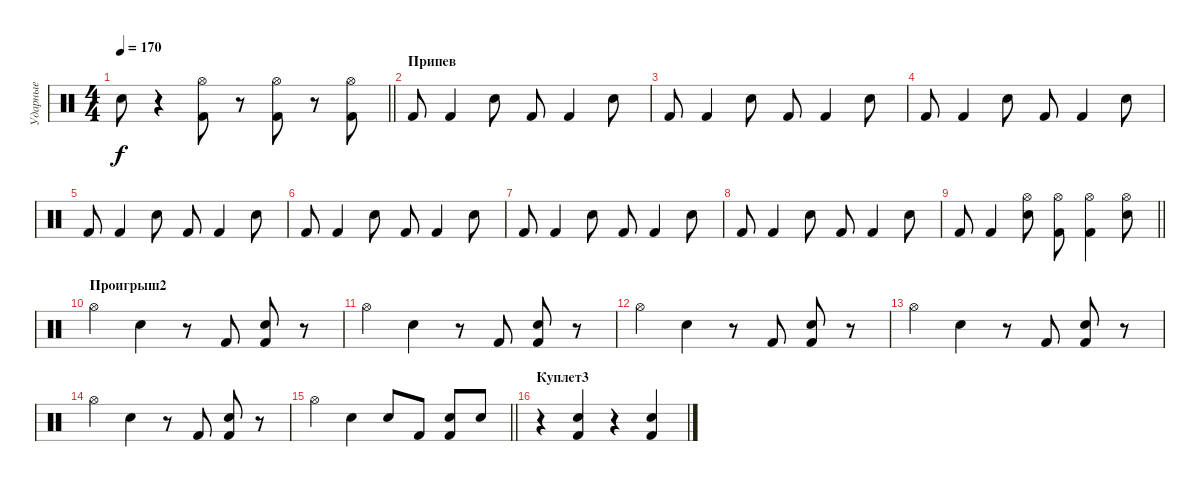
\track ("Ударные" "Ударные") {instrument percussion}
\staff {score}
\articulation defaults
\ts (4 4)
\tempo 170
\clef neutral
\barLineRight lightlight
\ks c "Electric Snare (hit)".8{dy f}
r.4 ("Hi-Hat (open)" "Kick (hit) 2").8 r.8 ("Hi-Hat (open)" "Kick (hit) 2").8 r.8 ("Hi-Hat (open)" "Kick (hit) 2").8 |
\section ("" "Припев")
"Kick (hit) 2".8 "Kick (hit) 2".4 "Electric Snare (hit)".8 "Kick (hit) 2".8 "Kick (hit) 2".4 "Electric Snare (hit)".8 |
"Kick (hit) 2".8 "Kick (hit) 2".4 "Electric Snare (hit)".8 "Kick (hit) 2".8 "Kick (hit) 2".4 "Electric Snare (hit)".8 |
"Kick (hit) 2".8 "Kick (hit) 2".4 "Electric Snare (hit)".8 "Kick (hit) 2".8 "Kick (hit) 2".4 "Electric Snare (hit)".8 |
"Kick (hit) 2".8 "Kick (hit) 2".4 "Electric Snare (hit)".8 "Kick (hit) 2".8 "Kick (hit) 2".4 "Electric Snare (hit)".8 |
"Kick (hit) 2".8 "Kick (hit) 2".4 "Electric Snare (hit)".8 "Kick (hit) 2".8 "Kick (hit) 2".4 "Electric Snare (hit)".8 |
"Kick (hit) 2".8 "Kick (hit) 2".4 "Electric Snare (hit)".8 "Kick (hit) 2".8 "Kick (hit) 2".4 "Electric Snare (hit)".8 |
"Kick (hit) 2".8 "Kick (hit) 2".4 "Electric Snare (hit)".8 "Kick (hit) 2".8 "Kick (hit) 2".4 "Electric Snare (hit)".8 |
\barLineRight lightlight "Kick (hit) 2".8 "Kick (hit) 2".4
("Hi-Hat (open)" "Electric Snare (hit)").8 ("Hi-Hat (open)" "Kick (hit) 2").8 ("Hi-Hat (open)" "Kick (hit) 2").4 ("Hi-Hat (open)" "Electric Snare (hit)").8 |
\section ("" "Проигрыш2")
"Hi-Hat (open)".4 "Electric Snare (hit)".4 r.8 "Kick (hit) 2".8 ("Electric Snare (hit)" "Kick (hit) 2").8 r.8 |
"Hi-Hat (open)".4 "Electric Snare (hit)".4 r.8 "Kick (hit) 2".8 ("Electric Snare (hit)" "Kick (hit) 2").8 r.8 |
"Hi-Hat (open)".4 "Electric Snare (hit)".4 r.8 "Kick (hit) 2".8 ("Electric Snare (hit)" "Kick (hit) 2").8 r.8 |
"Hi-Hat (open)".4 "Electric Snare (hit)".4 r.8 "Kick (hit) 2".8 ("Electric Snare (hit)" "Kick (hit) 2").8 r.8 |
"Hi-Hat (open)".4 "Electric Snare (hit)".4 r.8 "Kick (hit) 2".8 ("Electric Snare (hit)" "Kick (hit) 2").8 r.8 |
\barLineRight lightlight "Hi-Hat (open)".4 "Electric Snare (hit)".4 "Electric Snare (hit)".8 "Kick (hit) 2".8
("Electric Snare (hit)" "Kick (hit) 2").8 "Electric Snare (hit)".8 |
\section ("" "Куплет3")
r.4 ("Electric Snare (hit)" "Kick (hit) 2").4 r.4 ("Electric Snare (hit)" "Kick (hit) 2").4
